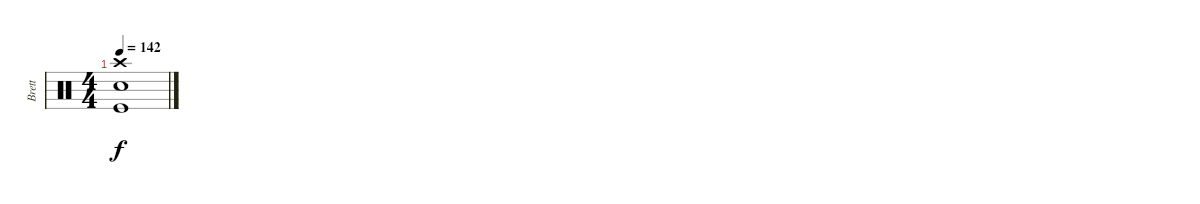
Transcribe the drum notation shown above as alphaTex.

\track ("Brett" "Brett") {instrument percussion}
\staff {score}
\articulation defaults
\ts (4 4)
\tempo 142
\clef neutral
\ks c
("Crash high (hit)" "Electric Snare (hit)" "Kick (hit)").1{dy f}
